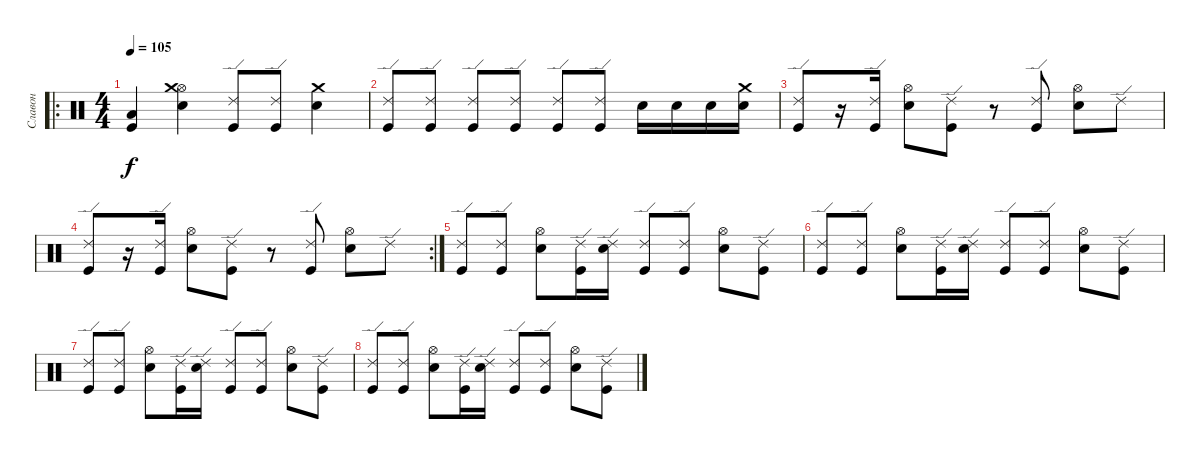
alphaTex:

\track ("Славон" "Славон") {instrument percussion}
\staff {score}
\articulation defaults
\ro
\ts (4 4)
\tempo 105
\clef neutral
\ks c
("Low Floor Tom (hit)" "Kick (hit)").4{dy f} ("Hi-Hat (open)" "Crash medium (hit)" "Electric Snare (hit)").4 ("Ride (edge) 2" "Kick (hit)").8 ("Ride (edge) 2" "Kick (hit)").8 ("Crash medium (hit)" "Electric Snare (hit)").4 |
("Ride (edge) 2" "Kick (hit)").8 ("Ride (edge) 2" "Kick (hit)").8 ("Ride (edge) 2" "Kick (hit)").8 ("Ride (edge) 2" "Kick (hit)").8 ("Ride (edge) 2" "Kick (hit)").8 ("Ride (edge) 2" "Kick (hit)").8 "Electric Snare (hit)".16 "Electric Snare (hit)".16 "Electric Snare (hit)".16 ("Crash medium (hit)" "Electric Snare (hit)").16 |
("Ride (edge) 2" "Kick (hit)").8 r.16 ("Ride (edge) 2" "Kick (hit)").16 ("Hi-Hat (open)" "Electric Snare (hit)").8 ("Ride (edge) 2" "Kick (hit)").8 r.8 ("Ride (edge) 2" "Kick (hit)").8 ("Hi-Hat (open)" "Electric Snare (hit)").8 "Ride (edge) 2".8 |
\rc 2
("Ride (edge) 2" "Kick (hit)").8 r.16 ("Ride (edge) 2" "Kick (hit)").16 ("Hi-Hat (open)" "Electric Snare (hit)").8 ("Ride (edge) 2" "Kick (hit)").8 r.8 ("Ride (edge) 2" "Kick (hit)").8 ("Hi-Hat (open)" "Electric Snare (hit)").8 "Ride (edge) 2".8 |
("Ride (edge) 2" "Kick (hit)").8 ("Ride (edge) 2" "Kick (hit)").8 ("Hi-Hat (open)" "Electric Snare (hit)").8 ("Ride (edge) 2" "Kick (hit)").16 ("Ride (edge) 2" "Electric Snare (hit)").16 ("Ride (edge) 2" "Kick (hit)").8 ("Ride (edge) 2" "Kick (hit)").8 ("Hi-Hat (open)" "Electric Snare (hit)").8 ("Ride (edge) 2" "Kick (hit)").8 |
("Ride (edge) 2" "Kick (hit)").8 ("Ride (edge) 2" "Kick (hit)").8 ("Hi-Hat (open)" "Electric Snare (hit)").8 ("Ride (edge) 2" "Kick (hit)").16 ("Ride (edge) 2" "Electric Snare (hit)").16 ("Ride (edge) 2" "Kick (hit)").8 ("Ride (edge) 2" "Kick (hit)").8 ("Hi-Hat (open)" "Electric Snare (hit)").8 ("Ride (edge) 2" "Kick (hit)").8 |
("Ride (edge) 2" "Kick (hit)").8 ("Ride (edge) 2" "Kick (hit)").8 ("Hi-Hat (open)" "Electric Snare (hit)").8 ("Ride (edge) 2" "Kick (hit)").16 ("Ride (edge) 2" "Electric Snare (hit)").16 ("Ride (edge) 2" "Kick (hit)").8 ("Ride (edge) 2" "Kick (hit)").8 ("Hi-Hat (open)" "Electric Snare (hit)").8 ("Ride (edge) 2" "Kick (hit)").8 |
("Ride (edge) 2" "Kick (hit)").8 ("Ride (edge) 2" "Kick (hit)").8 ("Hi-Hat (open)" "Electric Snare (hit)").8 ("Ride (edge) 2" "Kick (hit)").16 ("Ride (edge) 2" "Electric Snare (hit)").16 ("Ride (edge) 2" "Kick (hit)").8 ("Ride (edge) 2" "Kick (hit)").8 ("Hi-Hat (open)" "Electric Snare (hit)").8 ("Ride (edge) 2" "Kick (hit)").8
